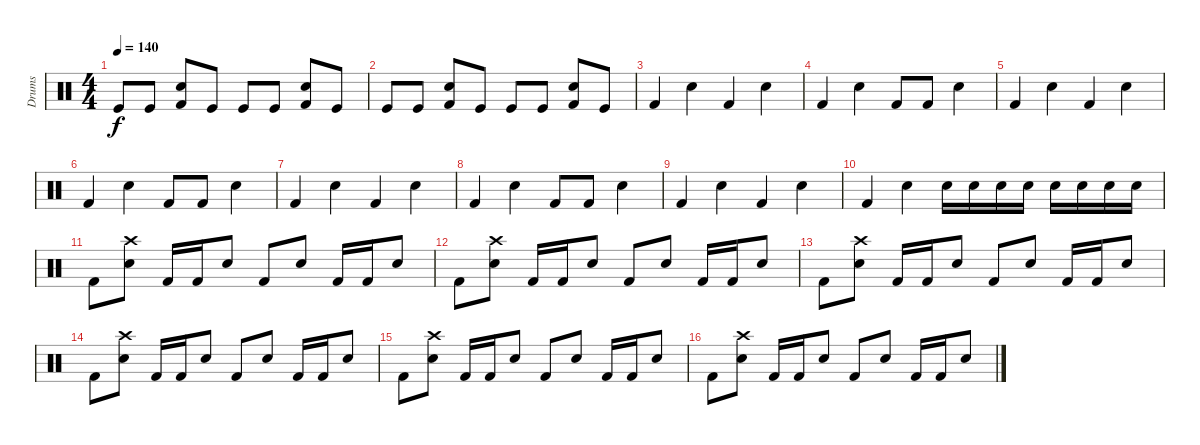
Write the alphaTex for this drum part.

\track ("Drums" "Drums") {instrument percussion}
\staff {score}
\articulation defaults
\ts (4 4)
\tempo 140
\clef neutral
\ks c "Kick (hit)".8{dy f} "Kick (hit)".8
("Kick (hit) 2" "Electric Snare (hit)").8 "Kick (hit)".8 "Kick (hit)".8 "Kick (hit)".8 ("Kick (hit) 2" "Electric Snare (hit)").8 "Kick (hit)".8 |
"Kick (hit)".8 "Kick (hit)".8 ("Kick (hit) 2" "Electric Snare (hit)").8 "Kick (hit)".8 "Kick (hit)".8 "Kick (hit)".8 ("Kick (hit) 2" "Electric Snare (hit)").8 "Kick (hit)".8 |
"Kick (hit) 2".4 "Snare (hit) 2".4 "Kick (hit) 2".4 "Snare (hit) 2".4 |
"Kick (hit) 2".4 "Snare (hit) 2".4 "Kick (hit) 2".8 "Kick (hit) 2".8 "Snare (hit) 2".4 |
"Kick (hit) 2".4 "Snare (hit) 2".4 "Kick (hit) 2".4 "Snare (hit) 2".4 |
"Kick (hit) 2".4 "Snare (hit) 2".4 "Kick (hit) 2".8 "Kick (hit) 2".8 "Snare (hit) 2".4 |
"Kick (hit) 2".4 "Snare (hit) 2".4 "Kick (hit) 2".4 "Snare (hit) 2".4 |
"Kick (hit) 2".4 "Snare (hit) 2".4 "Kick (hit) 2".8 "Kick (hit) 2".8 "Snare (hit) 2".4 |
"Kick (hit) 2".4 "Snare (hit) 2".4 "Kick (hit) 2".4 "Snare (hit) 2".4 |
"Kick (hit) 2".4 "Snare (hit) 2".4 "Snare (hit) 2".16 "Snare (hit) 2".16 "Snare (hit) 2".16 "Snare (hit) 2".16 "Snare (hit) 2".16 "Snare (hit) 2".16 "Snare (hit) 2".16 "Snare (hit) 2".16 |
"Kick (hit) 2".8 ("Snare (hit) 2" "Crash high (hit)").8 "Kick (hit) 2".16 "Kick (hit) 2".16 "Snare (hit) 2".8 "Kick (hit) 2".8 "Snare (hit) 2".8 "Kick (hit) 2".16 "Kick (hit) 2".16 "Snare (hit) 2".8 |
"Kick (hit) 2".8 ("Snare (hit) 2" "Crash high (hit)").8 "Kick (hit) 2".16 "Kick (hit) 2".16 "Snare (hit) 2".8 "Kick (hit) 2".8 "Snare (hit) 2".8 "Kick (hit) 2".16 "Kick (hit) 2".16 "Snare (hit) 2".8 |
"Kick (hit) 2".8 ("Snare (hit) 2" "Crash high (hit)").8 "Kick (hit) 2".16 "Kick (hit) 2".16 "Snare (hit) 2".8 "Kick (hit) 2".8 "Snare (hit) 2".8 "Kick (hit) 2".16 "Kick (hit) 2".16 "Snare (hit) 2".8 |
"Kick (hit) 2".8 ("Snare (hit) 2" "Crash high (hit)").8 "Kick (hit) 2".16 "Kick (hit) 2".16 "Snare (hit) 2".8 "Kick (hit) 2".8 "Snare (hit) 2".8 "Kick (hit) 2".16 "Kick (hit) 2".16 "Snare (hit) 2".8 |
"Kick (hit) 2".8 ("Snare (hit) 2" "Crash high (hit)").8 "Kick (hit) 2".16 "Kick (hit) 2".16 "Snare (hit) 2".8 "Kick (hit) 2".8 "Snare (hit) 2".8 "Kick (hit) 2".16 "Kick (hit) 2".16 "Snare (hit) 2".8 |
"Kick (hit) 2".8 ("Snare (hit) 2" "Crash high (hit)").8 "Kick (hit) 2".16 "Kick (hit) 2".16 "Snare (hit) 2".8 "Kick (hit) 2".8 "Snare (hit) 2".8 "Kick (hit) 2".16 "Kick (hit) 2".16 "Snare (hit) 2".8
